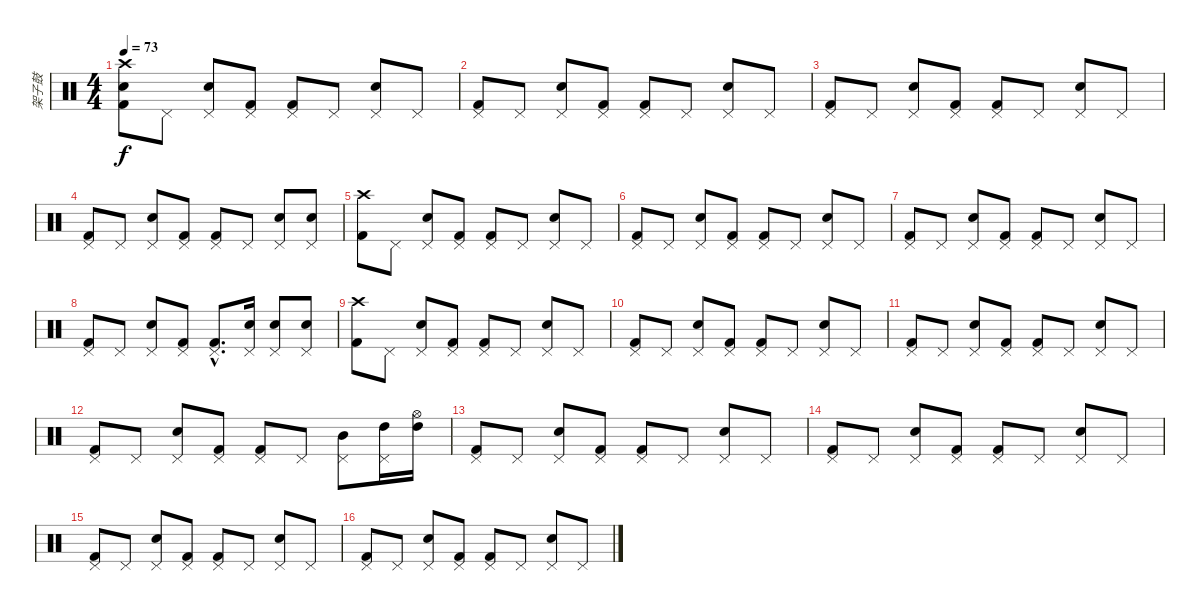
\track ("架子鼓" "架子鼓") {instrument percussion}
\staff {score}
\articulation defaults
\ts (4 4)
\tempo 73
\clef neutral
\ks c
("Crash high (hit)" "Kick (hit) 2" "Electric Snare (hit)").8{dy f} "Pedal Hi-Hat (hit)".8 ("Pedal Hi-Hat (hit)" "Electric Snare (hit)").8 ("Pedal Hi-Hat (hit)" "Kick (hit) 2").8 ("Pedal Hi-Hat (hit)" "Kick (hit) 2").8 "Pedal Hi-Hat (hit)".8 ("Pedal Hi-Hat (hit)" "Electric Snare (hit)").8 "Pedal Hi-Hat (hit)".8 |
("Pedal Hi-Hat (hit)" "Kick (hit) 2").8 "Pedal Hi-Hat (hit)".8 ("Pedal Hi-Hat (hit)" "Electric Snare (hit)").8 ("Pedal Hi-Hat (hit)" "Kick (hit) 2").8 ("Pedal Hi-Hat (hit)" "Kick (hit) 2").8 "Pedal Hi-Hat (hit)".8 ("Pedal Hi-Hat (hit)" "Electric Snare (hit)").8 "Pedal Hi-Hat (hit)".8 |
("Pedal Hi-Hat (hit)" "Kick (hit) 2").8 "Pedal Hi-Hat (hit)".8 ("Pedal Hi-Hat (hit)" "Electric Snare (hit)").8 ("Pedal Hi-Hat (hit)" "Kick (hit) 2").8 ("Pedal Hi-Hat (hit)" "Kick (hit) 2").8 "Pedal Hi-Hat (hit)".8 ("Pedal Hi-Hat (hit)" "Electric Snare (hit)").8 "Pedal Hi-Hat (hit)".8 |
("Pedal Hi-Hat (hit)" "Kick (hit) 2").8 "Pedal Hi-Hat (hit)".8 ("Pedal Hi-Hat (hit)" "Electric Snare (hit)").8 ("Pedal Hi-Hat (hit)" "Kick (hit) 2").8 ("Pedal Hi-Hat (hit)" "Kick (hit) 2").8 "Pedal Hi-Hat (hit)".8 ("Pedal Hi-Hat (hit)" "Electric Snare (hit)").8 ("Pedal Hi-Hat (hit)" "Electric Snare (hit)").8 |
("Crash high (hit)" "Kick (hit) 2").8 "Pedal Hi-Hat (hit)".8 ("Pedal Hi-Hat (hit)" "Electric Snare (hit)").8 ("Pedal Hi-Hat (hit)" "Kick (hit) 2").8 ("Pedal Hi-Hat (hit)" "Kick (hit) 2").8 "Pedal Hi-Hat (hit)".8 ("Pedal Hi-Hat (hit)" "Electric Snare (hit)").8 "Pedal Hi-Hat (hit)".8 |
("Pedal Hi-Hat (hit)" "Kick (hit) 2").8 "Pedal Hi-Hat (hit)".8 ("Pedal Hi-Hat (hit)" "Electric Snare (hit)").8 ("Pedal Hi-Hat (hit)" "Kick (hit) 2").8 ("Pedal Hi-Hat (hit)" "Kick (hit) 2").8 "Pedal Hi-Hat (hit)".8 ("Pedal Hi-Hat (hit)" "Electric Snare (hit)").8 "Pedal Hi-Hat (hit)".8 |
("Pedal Hi-Hat (hit)" "Kick (hit) 2").8 "Pedal Hi-Hat (hit)".8 ("Pedal Hi-Hat (hit)" "Electric Snare (hit)").8 ("Pedal Hi-Hat (hit)" "Kick (hit) 2").8 ("Pedal Hi-Hat (hit)" "Kick (hit) 2").8 "Pedal Hi-Hat (hit)".8 ("Pedal Hi-Hat (hit)" "Electric Snare (hit)").8 "Pedal Hi-Hat (hit)".8 |
("Pedal Hi-Hat (hit)" "Kick (hit) 2").8 "Pedal Hi-Hat (hit)".8 ("Pedal Hi-Hat (hit)" "Electric Snare (hit)").8 ("Pedal Hi-Hat (hit)" "Kick (hit) 2").8 ("Pedal Hi-Hat (hit)"{hac} "Kick (hit) 2"{hac}).8{d} ("Pedal Hi-Hat (hit)" "Electric Snare (hit)").16 ("Pedal Hi-Hat (hit)" "Electric Snare (hit)").8 ("Pedal Hi-Hat (hit)" "Electric Snare (hit)").8 |
("Crash high (hit)" "Kick (hit) 2").8 "Pedal Hi-Hat (hit)".8 ("Pedal Hi-Hat (hit)" "Electric Snare (hit)").8 ("Pedal Hi-Hat (hit)" "Kick (hit) 2").8 ("Pedal Hi-Hat (hit)" "Kick (hit) 2").8 "Pedal Hi-Hat (hit)".8 ("Pedal Hi-Hat (hit)" "Electric Snare (hit)").8 "Pedal Hi-Hat (hit)".8 |
("Pedal Hi-Hat (hit)" "Kick (hit) 2").8 "Pedal Hi-Hat (hit)".8 ("Pedal Hi-Hat (hit)" "Electric Snare (hit)").8 ("Pedal Hi-Hat (hit)" "Kick (hit) 2").8 ("Pedal Hi-Hat (hit)" "Kick (hit) 2").8 "Pedal Hi-Hat (hit)".8 ("Pedal Hi-Hat (hit)" "Electric Snare (hit)").8 "Pedal Hi-Hat (hit)".8 |
("Pedal Hi-Hat (hit)" "Kick (hit) 2").8 "Pedal Hi-Hat (hit)".8 ("Pedal Hi-Hat (hit)" "Electric Snare (hit)").8 ("Pedal Hi-Hat (hit)" "Kick (hit) 2").8 ("Pedal Hi-Hat (hit)" "Kick (hit) 2").8 "Pedal Hi-Hat (hit)".8 ("Pedal Hi-Hat (hit)" "Electric Snare (hit)").8 "Pedal Hi-Hat (hit)".8 |
("Pedal Hi-Hat (hit)" "Kick (hit) 2").8 "Pedal Hi-Hat (hit)".8 ("Pedal Hi-Hat (hit)" "Electric Snare (hit)").8 ("Pedal Hi-Hat (hit)" "Kick (hit) 2").8 ("Pedal Hi-Hat (hit)" "Kick (hit) 2").8 "Pedal Hi-Hat (hit)".8 ("Pedal Hi-Hat (hit)" "Mid Tom (hit)").8 ("Pedal Hi-Hat (hit)" "High Tom (hit)").16 ("Hi-Hat (open)" "High Tom (hit)").16 |
("Pedal Hi-Hat (hit)" "Kick (hit) 2").8 "Pedal Hi-Hat (hit)".8 ("Pedal Hi-Hat (hit)" "Electric Snare (hit)").8 ("Pedal Hi-Hat (hit)" "Kick (hit) 2").8 ("Pedal Hi-Hat (hit)" "Kick (hit) 2").8 "Pedal Hi-Hat (hit)".8 ("Pedal Hi-Hat (hit)" "Electric Snare (hit)").8 "Pedal Hi-Hat (hit)".8 |
("Pedal Hi-Hat (hit)" "Kick (hit) 2").8 "Pedal Hi-Hat (hit)".8 ("Pedal Hi-Hat (hit)" "Electric Snare (hit)").8 ("Pedal Hi-Hat (hit)" "Kick (hit) 2").8 ("Pedal Hi-Hat (hit)" "Kick (hit) 2").8 "Pedal Hi-Hat (hit)".8 ("Pedal Hi-Hat (hit)" "Electric Snare (hit)").8 "Pedal Hi-Hat (hit)".8 |
("Pedal Hi-Hat (hit)" "Kick (hit) 2").8 "Pedal Hi-Hat (hit)".8 ("Pedal Hi-Hat (hit)" "Electric Snare (hit)").8 ("Pedal Hi-Hat (hit)" "Kick (hit) 2").8 ("Pedal Hi-Hat (hit)" "Kick (hit) 2").8 "Pedal Hi-Hat (hit)".8 ("Pedal Hi-Hat (hit)" "Electric Snare (hit)").8 "Pedal Hi-Hat (hit)".8 |
("Pedal Hi-Hat (hit)" "Kick (hit) 2").8 "Pedal Hi-Hat (hit)".8 ("Pedal Hi-Hat (hit)" "Electric Snare (hit)").8 ("Pedal Hi-Hat (hit)" "Kick (hit) 2").8 ("Pedal Hi-Hat (hit)" "Kick (hit) 2").8 "Pedal Hi-Hat (hit)".8 ("Pedal Hi-Hat (hit)" "Electric Snare (hit)").8 "Pedal Hi-Hat (hit)".8
